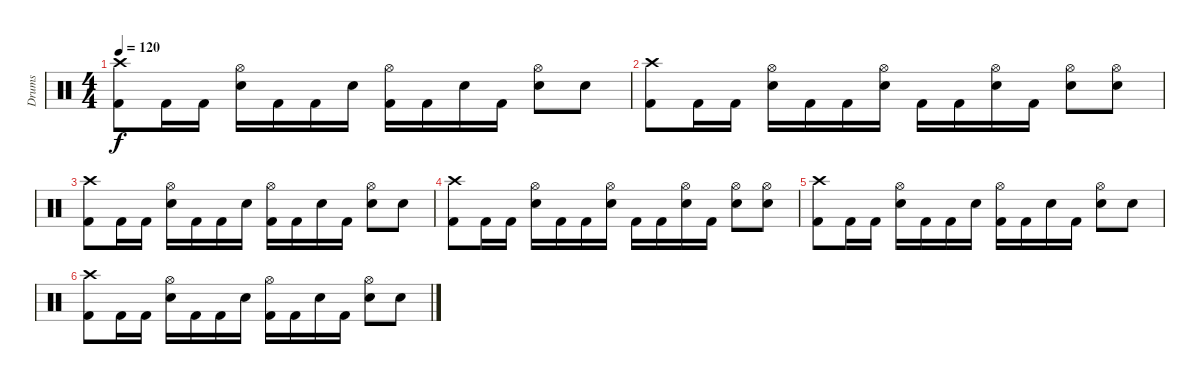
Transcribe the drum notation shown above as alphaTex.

\track ("Drums" "Drums") {instrument percussion}
\staff {score}
\articulation defaults
\ts (4 4)
\tempo 120
\clef neutral
\ks c
("Crash high (hit)" "Kick (hit) 2").8{dy f} "Kick (hit) 2".16 "Kick (hit) 2".16 ("Hi-Hat (open)" "Electric Snare (hit)").16 "Kick (hit) 2".16 "Kick (hit) 2".16 "Electric Snare (hit)".16 ("Hi-Hat (open)" "Kick (hit) 2").16 "Kick (hit) 2".16 "Electric Snare (hit)".16 "Kick (hit) 2".16 ("Hi-Hat (open)" "Electric Snare (hit)").8 "Electric Snare (hit)".8 |
("Crash high (hit)" "Kick (hit) 2").8{volume 8} "Kick (hit) 2".16 "Kick (hit) 2".16 ("Hi-Hat (open)" "Electric Snare (hit)").16 "Kick (hit) 2".16 "Kick (hit) 2".16 ("Hi-Hat (open)" "Electric Snare (hit)").16 "Kick (hit) 2".16 "Kick (hit) 2".16 ("Hi-Hat (open)" "Electric Snare (hit)").16 "Kick (hit) 2".16 ("Hi-Hat (open)" "Electric Snare (hit)").8 ("Hi-Hat (open)" "Electric Snare (hit)").8 |
("Crash high (hit)" "Kick (hit) 2").8 "Kick (hit) 2".16 "Kick (hit) 2".16 ("Hi-Hat (open)" "Electric Snare (hit)").16 "Kick (hit) 2".16 "Kick (hit) 2".16 "Electric Snare (hit)".16 ("Hi-Hat (open)" "Kick (hit) 2").16 "Kick (hit) 2".16 "Electric Snare (hit)".16 "Kick (hit) 2".16 ("Hi-Hat (open)" "Electric Snare (hit)").8 "Electric Snare (hit)".8 |
("Crash high (hit)" "Kick (hit) 2").8 "Kick (hit) 2".16 "Kick (hit) 2".16 ("Hi-Hat (open)" "Electric Snare (hit)").16 "Kick (hit) 2".16 "Kick (hit) 2".16 ("Hi-Hat (open)" "Electric Snare (hit)").16 "Kick (hit) 2".16 "Kick (hit) 2".16 ("Hi-Hat (open)" "Electric Snare (hit)").16 "Kick (hit) 2".16 ("Hi-Hat (open)" "Electric Snare (hit)").8 ("Hi-Hat (open)" "Electric Snare (hit)").8 |
("Crash high (hit)" "Kick (hit) 2").8 "Kick (hit) 2".16 "Kick (hit) 2".16 ("Hi-Hat (open)" "Electric Snare (hit)").16 "Kick (hit) 2".16 "Kick (hit) 2".16 "Electric Snare (hit)".16 ("Hi-Hat (open)" "Kick (hit) 2").16 "Kick (hit) 2".16 "Electric Snare (hit)".16 "Kick (hit) 2".16 ("Hi-Hat (open)" "Electric Snare (hit)").8 "Electric Snare (hit)".8 |
("Crash high (hit)" "Kick (hit) 2").8{volume 0} "Kick (hit) 2".16 "Kick (hit) 2".16 ("Hi-Hat (open)" "Electric Snare (hit)").16 "Kick (hit) 2".16 "Kick (hit) 2".16 "Electric Snare (hit)".16 ("Hi-Hat (open)" "Kick (hit) 2").16 "Kick (hit) 2".16 "Electric Snare (hit)".16 "Kick (hit) 2".16 ("Hi-Hat (open)" "Electric Snare (hit)").8 "Electric Snare (hit)".8
